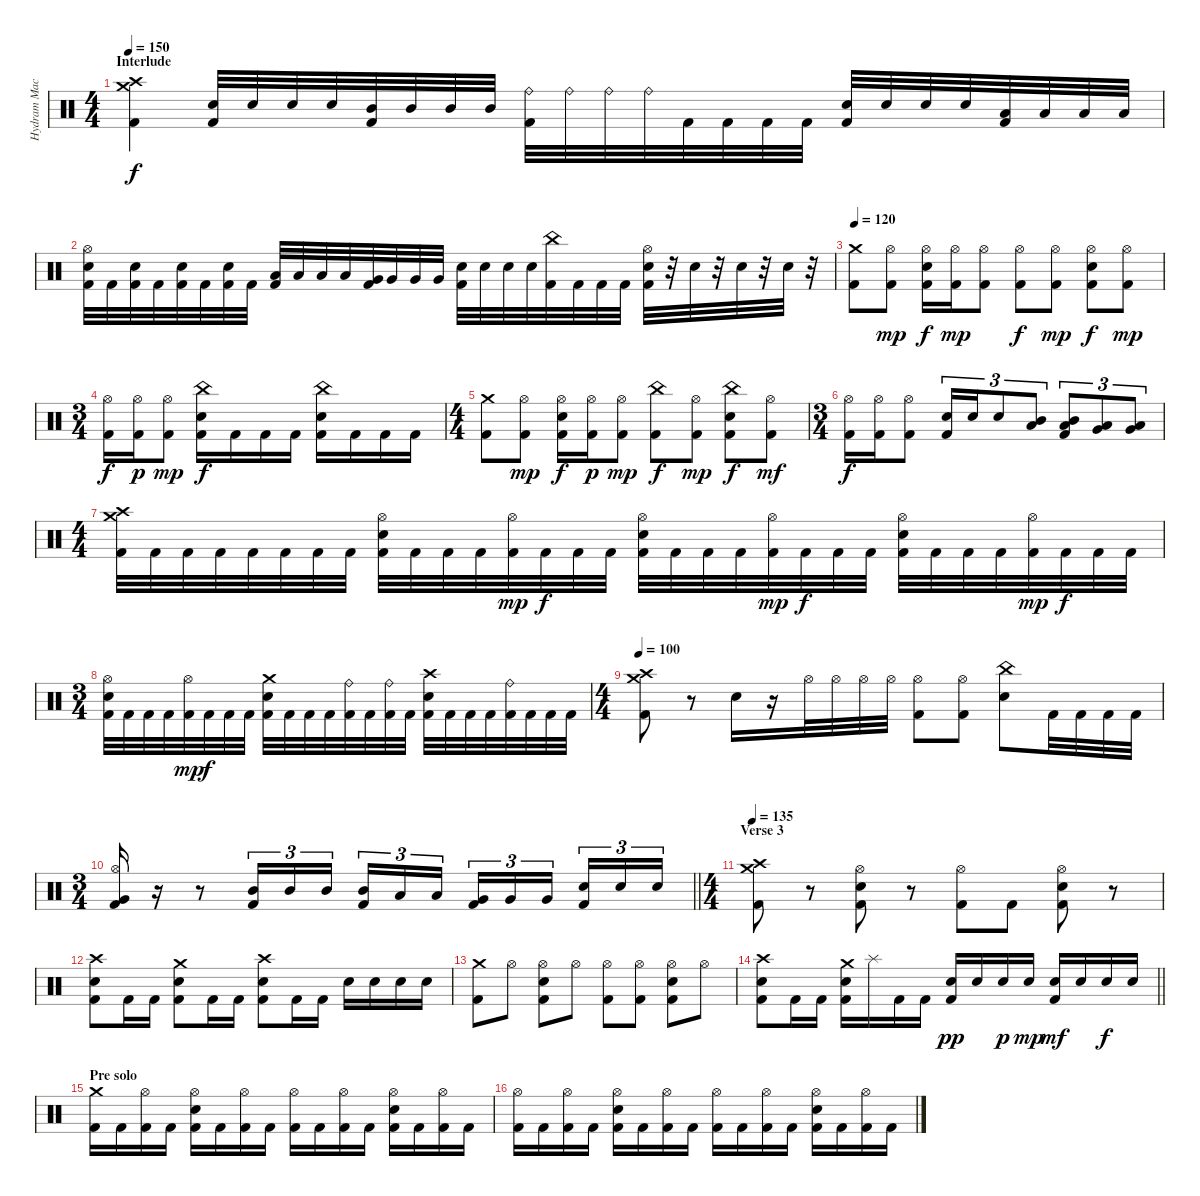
\track ("Hydram Machine" "Hydram Mac") {instrument percussion}
\staff {score}
\articulation defaults
\ts (4 4)
\section ("" "Interlude")
\tempo 150
\clef neutral
\ks c
("Crash high (hit)" "Crash medium (hit)" "Kick (hit) 2").4{dy f} ("Electric Snare (hit)" "Kick (hit) 2").32 "Electric Snare (hit)".32 "Electric Snare (hit)".32 "Electric Snare (hit)".32 ("Mid Tom (hit)" "Kick (hit) 2").32 "Mid Tom (hit)".32 "Mid Tom (hit)".32 "Mid Tom (hit)".32 ("Ride (bell)" "Kick (hit) 2").32 "Ride (bell)".32 "Ride (bell)".32 "Ride (bell)".32 "Kick (hit) 2".32 "Kick (hit) 2".32 "Kick (hit) 2".32 "Kick (hit) 2".32 ("Electric Snare (hit)" "Kick (hit) 2").32 "Electric Snare (hit)".32 "Electric Snare (hit)".32 "Electric Snare (hit)".32 ("Low Tom (hit)" "Kick (hit) 2").32 "Low Tom (hit)".32 "Low Tom (hit)".32 "Low Tom (hit)".32 |
("Hi-Hat (open)" "Electric Snare (hit)" "Kick (hit) 2").32 "Kick (hit) 2".32 ("Electric Snare (hit)" "Kick (hit) 2").32 "Kick (hit) 2".32 ("Electric Snare (hit)" "Kick (hit) 2").32 "Kick (hit) 2".32 ("Electric Snare (hit)" "Kick (hit) 2").32 "Kick (hit) 2".32 ("Low Tom (hit)" "Kick (hit) 2").32 "Low Tom (hit)".32 "Low Tom (hit)".32 "Low Tom (hit)".32 ("Very Low Tom (hit)" "Kick (hit) 2").32 "Very Low Tom (hit)".32 "Very Low Tom (hit)".32 "Very Low Tom (hit)".32 ("Electric Snare (hit)" "Kick (hit) 2").32 "Electric Snare (hit)".32 "Electric Snare (hit)".32 "Electric Snare (hit)".32 ("China (hit)" "Kick (hit) 2").32 "Kick (hit) 2".32 "Kick (hit) 2".32 "Kick (hit) 2".32 ("Hi-Hat (open)" "Electric Snare (hit)" "Kick (hit) 2").32 r.32 "Electric Snare (hit)".32 r.32 "Electric Snare (hit)".32 r.32 "Electric Snare (hit)".32 r.32 |
\tempo 120
("Crash medium (hit)" "Kick (hit) 2").8 ("Hi-Hat (open)" "Kick (hit) 2").8{dy mp} ("Hi-Hat (open)" "Electric Snare (hit)" "Kick (hit) 2").16{dy f} ("Hi-Hat (open)" "Kick (hit) 2").16{dy mp} ("Hi-Hat (open)" "Kick (hit) 2").8 ("Hi-Hat (open)" "Kick (hit) 2").8{dy f} ("Hi-Hat (open)" "Kick (hit) 2").8{dy mp} ("Hi-Hat (open)" "Electric Snare (hit)" "Kick (hit) 2").8{dy f} ("Hi-Hat (open)" "Kick (hit) 2").8{dy mp} |
\ts (3 4)
("Hi-Hat (open)" "Kick (hit) 2").16{dy f} ("Hi-Hat (open)" "Kick (hit) 2").16{dy p} ("Hi-Hat (open)" "Kick (hit) 2").8{dy mp} ("China (hit)" "Electric Snare (hit)" "Kick (hit) 2").16{dy f} "Kick (hit) 2".16 "Kick (hit) 2".16 "Kick (hit) 2".16 ("China (hit)" "Electric Snare (hit)" "Kick (hit) 2").16 "Kick (hit) 2".16 "Kick (hit) 2".16 "Kick (hit) 2".16 |
\ts (4 4)
("Crash medium (hit)" "Kick (hit) 2").8 ("Hi-Hat (open)" "Kick (hit) 2").8{dy mp} ("Hi-Hat (open)" "Electric Snare (hit)" "Kick (hit) 2").16{dy f} ("Hi-Hat (open)" "Kick (hit) 2").16{dy p} ("Hi-Hat (open)" "Kick (hit) 2").8{dy mp} ("China (hit)" "Kick (hit) 2").8{dy f} ("Hi-Hat (open)" "Kick (hit) 2").8{dy mp} ("China (hit)" "Electric Snare (hit)" "Kick (hit) 2").8{dy f} ("Hi-Hat (open)" "Kick (hit) 2").8{dy mf} |
\ts (3 4)
("Hi-Hat (open)" "Kick (hit) 2").16{dy f} ("Hi-Hat (open)" "Kick (hit) 2").16 ("Hi-Hat (open)" "Kick (hit) 2").8 ("Electric Snare (hit)" "Kick (hit) 2").16{tu (3 2)} "Electric Snare (hit)".16{tu (3 2)} "Electric Snare (hit)".8{tu (3 2)} ("Low Tom (hit)" "Mid Tom (hit)").8{tu (3 2)} ("Low Tom (hit)" "Mid Tom (hit)" "Kick (hit) 2").8{tu (3 2)} ("Low Tom (hit)" "Very Low Tom (hit)").8{tu (3 2)} ("Low Tom (hit)" "Very Low Tom (hit)").8{tu (3 2)} |
\ts (4 4)
("Crash medium (hit)" "Crash high (hit)" "Kick (hit) 2").32 "Kick (hit) 2".32 "Kick (hit) 2".32 "Kick (hit) 2".32 "Kick (hit) 2".32 "Kick (hit) 2".32 "Kick (hit) 2".32 "Kick (hit) 2".32 ("Hi-Hat (open)" "Electric Snare (hit)" "Kick (hit) 2").32 "Kick (hit) 2".32 "Kick (hit) 2".32 "Kick (hit) 2".32 ("Hi-Hat (open)" "Kick (hit) 2").32{dy mp} "Kick (hit) 2".32{dy f} "Kick (hit) 2".32 "Kick (hit) 2".32 ("Hi-Hat (open)" "Electric Snare (hit)" "Kick (hit) 2").32 "Kick (hit) 2".32 "Kick (hit) 2".32 "Kick (hit) 2".32 ("Hi-Hat (open)" "Kick (hit) 2").32{dy mp} "Kick (hit) 2".32{dy f} "Kick (hit) 2".32 "Kick (hit) 2".32 ("Hi-Hat (open)" "Electric Snare (hit)" "Kick (hit) 2").32 "Kick (hit) 2".32 "Kick (hit) 2".32 "Kick (hit) 2".32 ("Hi-Hat (open)" "Kick (hit) 2").32{dy mp} "Kick (hit) 2".32{dy f} "Kick (hit) 2".32 "Kick (hit) 2".32 |
\ts (3 4)
("Hi-Hat (open)" "Electric Snare (hit)" "Kick (hit) 2").32 "Kick (hit) 2".32 "Kick (hit) 2".32 "Kick (hit) 2".32 ("Hi-Hat (open)" "Kick (hit) 2").32{dy mp} "Kick (hit) 2".32{dy f} "Kick (hit) 2".32 "Kick (hit) 2".32 ("Crash medium (hit)" "Electric Snare (hit)" "Kick (hit) 2").32 "Kick (hit) 2".32 "Kick (hit) 2".32 "Kick (hit) 2".32 ("Ride (bell)" "Kick (hit) 2").32 "Kick (hit) 2".32 ("Ride (bell)" "Kick (hit) 2").32 "Kick (hit) 2".32 ("Crash high (hit)" "Electric Snare (hit)" "Kick (hit) 2").32 "Kick (hit) 2".32 "Kick (hit) 2".32 "Kick (hit) 2".32 ("Ride (bell)" "Kick (hit) 2").32 "Kick (hit) 2".32 "Kick (hit) 2".32 "Kick (hit) 2".32 |
\ts (4 4)
\tempo 100
("Crash medium (hit)" "Crash high (hit)" "Kick (hit) 2").8 r.8 "Electric Snare (hit)".16 r.16 "Hi-Hat (open)".32 "Hi-Hat (open)".32 "Hi-Hat (open)".32 "Hi-Hat (open)".32 ("Hi-Hat (open)" "Kick (hit) 2").8 ("Hi-Hat (open)" "Kick (hit) 2").8 ("China (hit)" "Electric Snare (hit)").8 "Kick (hit) 2".32 "Kick (hit) 2".32 "Kick (hit) 2".32 "Kick (hit) 2".32 |
\ts (3 4)
\barLineRight lightlight
("Hi-Hat (open)" "Very Low Tom (hit)" "Kick (hit) 2").16 r.16 r.8 ("Mid Tom (hit)" "Kick (hit) 2").16{tu (3 2)} "Mid Tom (hit)".16{tu (3 2)} "Mid Tom (hit)".16{tu (3 2) beam splitsecondary} ("Mid Tom (hit)" "Kick (hit) 2").16{tu (3 2)} "Low Tom (hit)".16{tu (3 2)} "Low Tom (hit)".16{tu (3 2)} ("Very Low Tom (hit)" "Kick (hit) 2").16{tu (3 2)} "Very Low Tom (hit)".16{tu (3 2)} "Very Low Tom (hit)".16{tu (3 2) beam splitsecondary} ("Electric Snare (hit)" "Kick (hit) 2").16{tu (3 2)} "Electric Snare (hit)".16{tu (3 2)} "Electric Snare (hit)".16{tu (3 2)} |
\ts (4 4)
\section ("" "Verse 3")
\tempo 135
("Crash medium (hit)" "Crash high (hit)" "Kick (hit) 2").8 r.8 ("Hi-Hat (open)" "Electric Snare (hit)" "Kick (hit) 2").8 r.8 ("Hi-Hat (open)" "Kick (hit) 2").8 "Kick (hit) 2".8 ("Hi-Hat (open)" "Electric Snare (hit)" "Kick (hit) 2").8 r.8 |
("Crash high (hit)" "Electric Snare (hit)" "Kick (hit) 2").8 "Kick (hit) 2".16 "Kick (hit) 2".16 ("Crash medium (hit)" "Electric Snare (hit)" "Kick (hit) 2").8 "Kick (hit) 2".16 "Kick (hit) 2".16 ("Crash high (hit)" "Electric Snare (hit)" "Kick (hit) 2").8 "Kick (hit) 2".16 "Kick (hit) 2".16 "Electric Snare (hit)".16 "Electric Snare (hit)".16 "Electric Snare (hit)".16 "Electric Snare (hit)".16 |
("Crash medium (hit)" "Kick (hit) 2").8 "Hi-Hat (open)".8 ("Hi-Hat (open)" "Electric Snare (hit)" "Kick (hit) 2").8 "Hi-Hat (open)".8 ("Hi-Hat (open)" "Kick (hit) 2").8 ("Hi-Hat (open)" "Kick (hit) 2").8 ("Hi-Hat (open)" "Electric Snare (hit)" "Kick (hit) 2").8 "Hi-Hat (open)".8 |
\barLineRight lightlight
("Crash high (hit)" "Electric Snare (hit)" "Kick (hit) 2").8 "Kick (hit) 2".16 "Kick (hit) 2".16 ("Crash medium (hit)" "Electric Snare (hit)" "Kick (hit) 2").16 "Splash (hit)".16 "Kick (hit) 2".16 "Kick (hit) 2".16 ("Electric Snare (hit)" "Kick (hit) 2").16{dy pp} "Electric Snare (hit)".16 "Electric Snare (hit)".16{dy p} "Electric Snare (hit)".16{dy mp} ("Electric Snare (hit)" "Kick (hit) 2").16{dy mf} "Electric Snare (hit)".16 "Electric Snare (hit)".16{dy f} "Electric Snare (hit)".16 |
\section ("" "Pre solo")
("Crash medium (hit)" "Kick (hit) 2").16 "Kick (hit) 2".16 ("Hi-Hat (open)" "Kick (hit) 2").16 "Kick (hit) 2".16 ("Hi-Hat (open)" "Electric Snare (hit)" "Kick (hit) 2").16 "Kick (hit) 2".16 ("Hi-Hat (open)" "Kick (hit) 2").16 "Kick (hit) 2".16 ("Hi-Hat (open)" "Kick (hit) 2").16 "Kick (hit) 2".16 ("Hi-Hat (open)" "Kick (hit) 2").16 "Kick (hit) 2".16 ("Hi-Hat (open)" "Electric Snare (hit)" "Kick (hit) 2").16 "Kick (hit) 2".16 ("Hi-Hat (open)" "Kick (hit) 2").16 "Kick (hit) 2".16 |
("Hi-Hat (open)" "Kick (hit) 2").16 "Kick (hit) 2".16 ("Hi-Hat (open)" "Kick (hit) 2").16 "Kick (hit) 2".16 ("Hi-Hat (open)" "Electric Snare (hit)" "Kick (hit) 2").16 "Kick (hit) 2".16 ("Hi-Hat (open)" "Kick (hit) 2").16 "Kick (hit) 2".16 ("Hi-Hat (open)" "Kick (hit) 2").16 "Kick (hit) 2".16 ("Hi-Hat (open)" "Kick (hit) 2").16 "Kick (hit) 2".16 ("Hi-Hat (open)" "Electric Snare (hit)" "Kick (hit) 2").16 "Kick (hit) 2".16 ("Hi-Hat (open)" "Kick (hit) 2").16 "Kick (hit) 2".16
